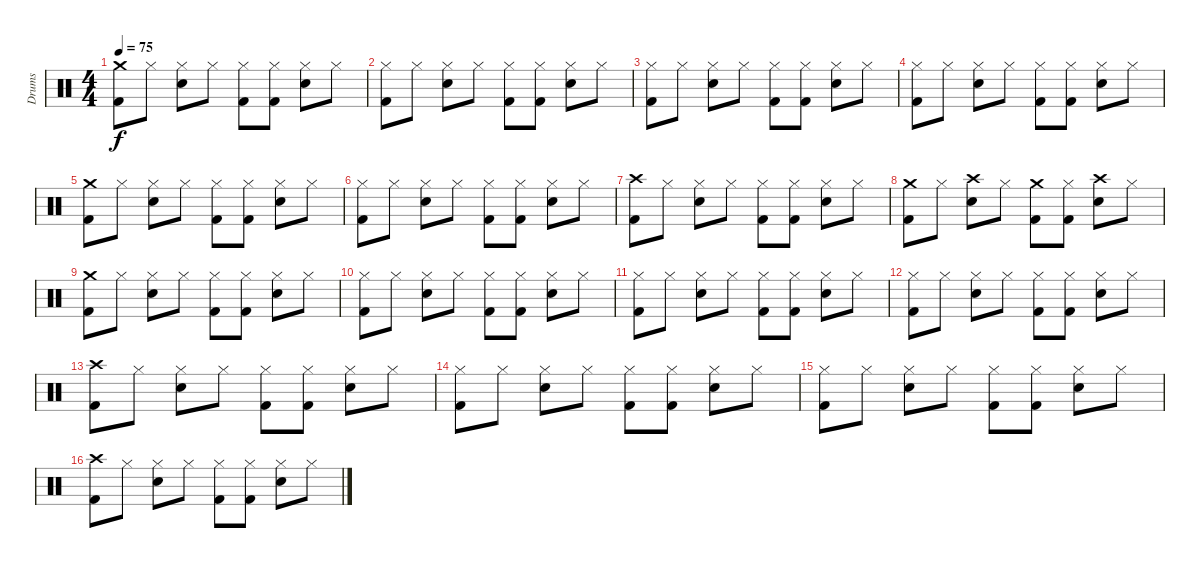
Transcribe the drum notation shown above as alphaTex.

\track ("Drums" "Drums") {instrument percussion}
\staff {score}
\articulation defaults
\ts (4 4)
\tempo 75
\clef neutral
\ks c
("Crash medium (hit)" "Kick (hit) 2").8{dy f} "Hi-Hat (closed)".8 ("Hi-Hat (closed)" "Snare (hit) 2").8 "Hi-Hat (closed)".8 ("Hi-Hat (closed)" "Kick (hit) 2").8 ("Hi-Hat (closed)" "Kick (hit) 2").8 ("Hi-Hat (closed)" "Snare (hit) 2").8 "Hi-Hat (closed)".8 |
("Hi-Hat (closed)" "Kick (hit) 2").8 "Hi-Hat (closed)".8 ("Hi-Hat (closed)" "Snare (hit) 2").8 "Hi-Hat (closed)".8 ("Hi-Hat (closed)" "Kick (hit) 2").8 ("Hi-Hat (closed)" "Kick (hit) 2").8 ("Hi-Hat (closed)" "Snare (hit) 2").8 "Hi-Hat (closed)".8 |
("Hi-Hat (closed)" "Kick (hit) 2").8 "Hi-Hat (closed)".8 ("Hi-Hat (closed)" "Snare (hit) 2").8 "Hi-Hat (closed)".8 ("Hi-Hat (closed)" "Kick (hit) 2").8 ("Hi-Hat (closed)" "Kick (hit) 2").8 ("Hi-Hat (closed)" "Snare (hit) 2").8 "Hi-Hat (closed)".8 |
("Hi-Hat (closed)" "Kick (hit) 2").8 "Hi-Hat (closed)".8 ("Hi-Hat (closed)" "Snare (hit) 2").8 "Hi-Hat (closed)".8 ("Hi-Hat (closed)" "Kick (hit) 2").8 ("Hi-Hat (closed)" "Kick (hit) 2").8 ("Hi-Hat (closed)" "Snare (hit) 2").8 "Hi-Hat (closed)".8 |
("Crash medium (hit)" "Kick (hit) 2").8 "Hi-Hat (closed)".8 ("Hi-Hat (closed)" "Snare (hit) 2").8 "Hi-Hat (closed)".8 ("Hi-Hat (closed)" "Kick (hit) 2").8 ("Hi-Hat (closed)" "Kick (hit) 2").8 ("Hi-Hat (closed)" "Snare (hit) 2").8 "Hi-Hat (closed)".8 |
("Hi-Hat (closed)" "Kick (hit) 2").8 "Hi-Hat (closed)".8 ("Hi-Hat (closed)" "Snare (hit) 2").8 "Hi-Hat (closed)".8 ("Hi-Hat (closed)" "Kick (hit) 2").8 ("Hi-Hat (closed)" "Kick (hit) 2").8 ("Hi-Hat (closed)" "Snare (hit) 2").8 "Hi-Hat (closed)".8 |
("Crash high (hit)" "Kick (hit) 2").8 "Hi-Hat (closed)".8 ("Hi-Hat (closed)" "Snare (hit) 2").8 "Hi-Hat (closed)".8 ("Hi-Hat (closed)" "Kick (hit) 2").8 ("Hi-Hat (closed)" "Kick (hit) 2").8 ("Hi-Hat (closed)" "Snare (hit) 2").8 "Hi-Hat (closed)".8 |
("Crash medium (hit)" "Kick (hit) 2").8 "Hi-Hat (closed)".8 ("Crash high (hit)" "Snare (hit) 2").8 "Hi-Hat (closed)".8 ("Crash medium (hit)" "Kick (hit) 2").8 ("Hi-Hat (closed)" "Kick (hit) 2").8 ("Crash high (hit)" "Snare (hit) 2").8 "Hi-Hat (closed)".8 |
("Crash medium (hit)" "Kick (hit) 2").8 "Hi-Hat (closed)".8 ("Hi-Hat (closed)" "Snare (hit) 2").8 "Hi-Hat (closed)".8 ("Hi-Hat (closed)" "Kick (hit) 2").8 ("Hi-Hat (closed)" "Kick (hit) 2").8 ("Hi-Hat (closed)" "Snare (hit) 2").8 "Hi-Hat (closed)".8 |
("Hi-Hat (closed)" "Kick (hit) 2").8 "Hi-Hat (closed)".8 ("Hi-Hat (closed)" "Snare (hit) 2").8 "Hi-Hat (closed)".8 ("Hi-Hat (closed)" "Kick (hit) 2").8 ("Hi-Hat (closed)" "Kick (hit) 2").8 ("Hi-Hat (closed)" "Snare (hit) 2").8 "Hi-Hat (closed)".8 |
("Hi-Hat (closed)" "Kick (hit) 2").8 "Hi-Hat (closed)".8 ("Hi-Hat (closed)" "Snare (hit) 2").8 "Hi-Hat (closed)".8 ("Hi-Hat (closed)" "Kick (hit) 2").8 ("Hi-Hat (closed)" "Kick (hit) 2").8 ("Hi-Hat (closed)" "Snare (hit) 2").8 "Hi-Hat (closed)".8 |
("Hi-Hat (closed)" "Kick (hit) 2").8 "Hi-Hat (closed)".8 ("Hi-Hat (closed)" "Snare (hit) 2").8 "Hi-Hat (closed)".8 ("Hi-Hat (closed)" "Kick (hit) 2").8 ("Hi-Hat (closed)" "Kick (hit) 2").8 ("Hi-Hat (closed)" "Snare (hit) 2").8 "Hi-Hat (closed)".8 |
("Crash high (hit)" "Kick (hit) 2").8 "Hi-Hat (closed)".8 ("Hi-Hat (closed)" "Snare (hit) 2").8 "Hi-Hat (closed)".8 ("Hi-Hat (closed)" "Kick (hit) 2").8 ("Hi-Hat (closed)" "Kick (hit) 2").8 ("Hi-Hat (closed)" "Snare (hit) 2").8 "Hi-Hat (closed)".8 |
("Hi-Hat (closed)" "Kick (hit) 2").8 "Hi-Hat (closed)".8 ("Hi-Hat (closed)" "Snare (hit) 2").8 "Hi-Hat (closed)".8 ("Hi-Hat (closed)" "Kick (hit) 2").8 ("Hi-Hat (closed)" "Kick (hit) 2").8 ("Hi-Hat (closed)" "Snare (hit) 2").8 "Hi-Hat (closed)".8 |
("Hi-Hat (closed)" "Kick (hit) 2").8 "Hi-Hat (closed)".8 ("Hi-Hat (closed)" "Snare (hit) 2").8 "Hi-Hat (closed)".8 ("Hi-Hat (closed)" "Kick (hit) 2").8 ("Hi-Hat (closed)" "Kick (hit) 2").8 ("Hi-Hat (closed)" "Snare (hit) 2").8 "Hi-Hat (closed)".8 |
("Crash high (hit)" "Kick (hit) 2").8 "Hi-Hat (closed)".8 ("Hi-Hat (closed)" "Snare (hit) 2").8 "Hi-Hat (closed)".8 ("Hi-Hat (closed)" "Kick (hit) 2").8 ("Hi-Hat (closed)" "Kick (hit) 2").8 ("Hi-Hat (closed)" "Snare (hit) 2").8 "Hi-Hat (closed)".8
